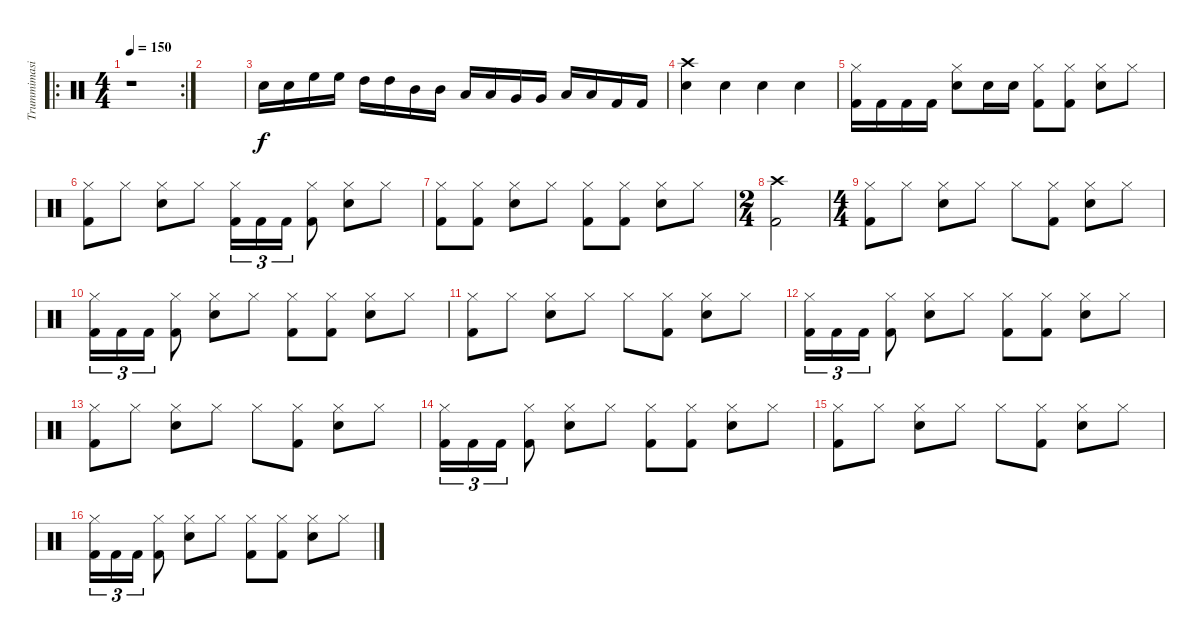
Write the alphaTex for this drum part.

\track ("Trummimasin" "Trummimasi") {instrument percussion}
\staff {score}
\articulation defaults
\ro
\rc 2
\ts (4 4)
\tempo 150
\clef neutral
\ks c
r.1{dy f} |
|
"Electric Snare (hit)".16 "Electric Snare (hit)".16 "High Floor Tom (hit)".16 "High Floor Tom (hit)".16 "High Tom (hit)".16 "High Tom (hit)".16 "Mid Tom (hit)".16 "Mid Tom (hit)".16 "Low Tom (hit)".16 "Low Tom (hit)".16 "Very Low Tom (hit)".16 "Very Low Tom (hit)".16 "Low Floor Tom (hit)".16 "Low Floor Tom (hit)".16 "Kick (hit) 2".16 "Kick (hit) 2".16 |
("Crash high (hit)" "Snare (hit) 2").4 "Snare (hit) 2".4 "Snare (hit) 2".4 "Snare (hit) 2".4 |
("Hi-Hat (closed)" "Kick (hit) 2").16 "Kick (hit) 2".16 "Kick (hit) 2".16 "Kick (hit) 2".16 ("Hi-Hat (closed)" "Snare (hit) 2").8 "Snare (hit) 2".16 "Snare (hit) 2".16 ("Hi-Hat (closed)" "Kick (hit) 2").8 ("Hi-Hat (closed)" "Kick (hit) 2").8 ("Hi-Hat (closed)" "Snare (hit) 2").8 "Hi-Hat (closed)".8 |
("Hi-Hat (closed)" "Kick (hit) 2").8 "Hi-Hat (closed)".8 ("Hi-Hat (closed)" "Snare (hit) 2").8 "Hi-Hat (closed)".8 ("Hi-Hat (closed)" "Kick (hit) 2").16{tu (3 2)} "Kick (hit) 2".16{tu (3 2)} "Kick (hit) 2".16{tu (3 2)} ("Hi-Hat (closed)" "Kick (hit) 2").8 ("Hi-Hat (closed)" "Snare (hit) 2").8 "Hi-Hat (closed)".8 |
("Hi-Hat (closed)" "Kick (hit) 2").8 ("Hi-Hat (closed)" "Kick (hit) 2").8 ("Hi-Hat (closed)" "Snare (hit) 2").8 "Hi-Hat (closed)".8 ("Hi-Hat (closed)" "Kick (hit) 2").8 ("Hi-Hat (closed)" "Kick (hit) 2").8 ("Hi-Hat (closed)" "Snare (hit) 2").8 "Hi-Hat (closed)".8 |
\ts (2 4)
("Crash high (hit)" "Kick (hit) 2").2 |
\ts (4 4)
("Hi-Hat (closed)" "Kick (hit) 2").8 "Hi-Hat (closed)".8 ("Hi-Hat (closed)" "Snare (hit) 2").8 "Hi-Hat (closed)".8 "Hi-Hat (closed)".8 ("Hi-Hat (closed)" "Kick (hit) 2").8 ("Hi-Hat (closed)" "Snare (hit) 2").8 "Hi-Hat (closed)".8 |
("Hi-Hat (closed)" "Kick (hit) 2").16{tu (3 2)} "Kick (hit) 2".16{tu (3 2)} "Kick (hit) 2".16{tu (3 2)} ("Hi-Hat (closed)" "Kick (hit) 2").8 ("Hi-Hat (closed)" "Snare (hit) 2").8 "Hi-Hat (closed)".8 ("Hi-Hat (closed)" "Kick (hit) 2").8 ("Hi-Hat (closed)" "Kick (hit) 2").8 ("Hi-Hat (closed)" "Snare (hit) 2").8 "Hi-Hat (closed)".8 |
("Hi-Hat (closed)" "Kick (hit) 2").8 "Hi-Hat (closed)".8 ("Hi-Hat (closed)" "Snare (hit) 2").8 "Hi-Hat (closed)".8 "Hi-Hat (closed)".8 ("Hi-Hat (closed)" "Kick (hit) 2").8 ("Hi-Hat (closed)" "Snare (hit) 2").8 "Hi-Hat (closed)".8 |
("Hi-Hat (closed)" "Kick (hit) 2").16{tu (3 2)} "Kick (hit) 2".16{tu (3 2)} "Kick (hit) 2".16{tu (3 2)} ("Hi-Hat (closed)" "Kick (hit) 2").8 ("Hi-Hat (closed)" "Snare (hit) 2").8 "Hi-Hat (closed)".8 ("Hi-Hat (closed)" "Kick (hit) 2").8 ("Hi-Hat (closed)" "Kick (hit) 2").8 ("Hi-Hat (closed)" "Snare (hit) 2").8 "Hi-Hat (closed)".8 |
("Hi-Hat (closed)" "Kick (hit) 2").8 "Hi-Hat (closed)".8 ("Hi-Hat (closed)" "Snare (hit) 2").8 "Hi-Hat (closed)".8 "Hi-Hat (closed)".8 ("Hi-Hat (closed)" "Kick (hit) 2").8 ("Hi-Hat (closed)" "Snare (hit) 2").8 "Hi-Hat (closed)".8 |
("Hi-Hat (closed)" "Kick (hit) 2").16{tu (3 2)} "Kick (hit) 2".16{tu (3 2)} "Kick (hit) 2".16{tu (3 2)} ("Hi-Hat (closed)" "Kick (hit) 2").8 ("Hi-Hat (closed)" "Snare (hit) 2").8 "Hi-Hat (closed)".8 ("Hi-Hat (closed)" "Kick (hit) 2").8 ("Hi-Hat (closed)" "Kick (hit) 2").8 ("Hi-Hat (closed)" "Snare (hit) 2").8 "Hi-Hat (closed)".8 |
("Hi-Hat (closed)" "Kick (hit) 2").8 "Hi-Hat (closed)".8 ("Hi-Hat (closed)" "Snare (hit) 2").8 "Hi-Hat (closed)".8 "Hi-Hat (closed)".8 ("Hi-Hat (closed)" "Kick (hit) 2").8 ("Hi-Hat (closed)" "Snare (hit) 2").8 "Hi-Hat (closed)".8 |
("Hi-Hat (closed)" "Kick (hit) 2").16{tu (3 2)} "Kick (hit) 2".16{tu (3 2)} "Kick (hit) 2".16{tu (3 2)} ("Hi-Hat (closed)" "Kick (hit) 2").8 ("Hi-Hat (closed)" "Snare (hit) 2").8 "Hi-Hat (closed)".8 ("Hi-Hat (closed)" "Kick (hit) 2").8 ("Hi-Hat (closed)" "Kick (hit) 2").8 ("Hi-Hat (closed)" "Snare (hit) 2").8 "Hi-Hat (closed)".8
